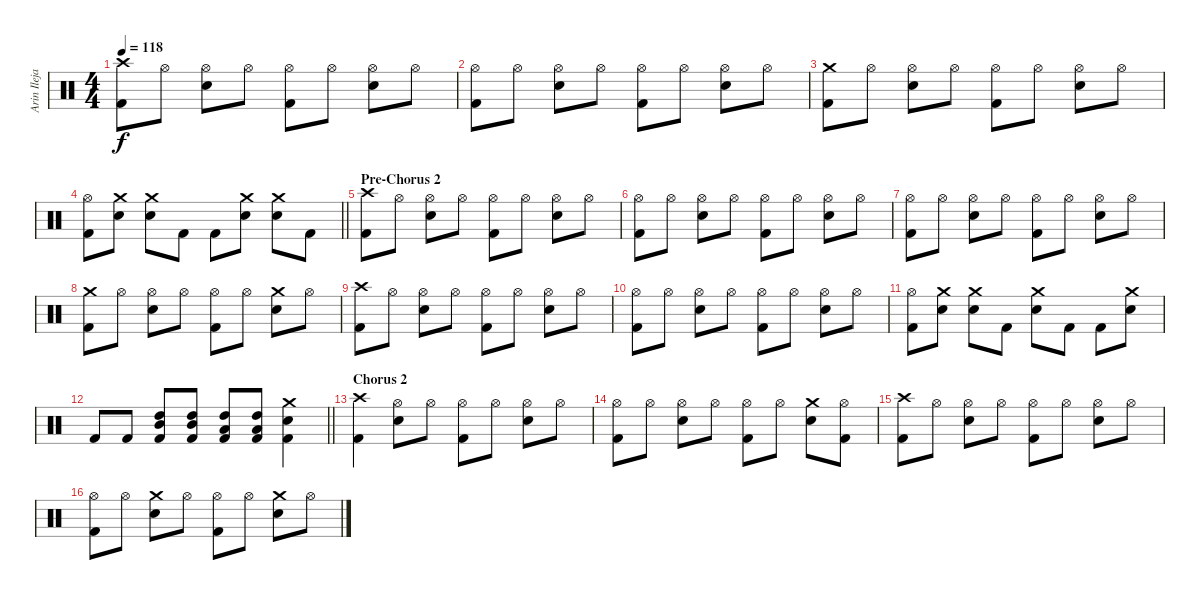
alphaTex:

\track ("Arin Ilejay" "Arin Ileja") {instrument percussion bank 164}
\staff {score}
\articulation defaults
\ts (4 4)
\tempo 118
\clef neutral
\ks c
("Crash high (hit)" "Kick (hit) 2").8{dy f} "Hi-Hat (open)".8 ("Hi-Hat (open)" "Electric Snare (hit)").8 "Hi-Hat (open)".8 ("Hi-Hat (open)" "Kick (hit) 2").8 "Hi-Hat (open)".8 ("Hi-Hat (open)" "Electric Snare (hit)").8 "Hi-Hat (open)".8 |
("Hi-Hat (open)" "Kick (hit) 2").8 "Hi-Hat (open)".8 ("Hi-Hat (open)" "Electric Snare (hit)").8 "Hi-Hat (open)".8 ("Hi-Hat (open)" "Kick (hit) 2").8 "Hi-Hat (open)".8 ("Hi-Hat (open)" "Electric Snare (hit)").8 "Hi-Hat (open)".8 |
("Crash medium (hit)" "Kick (hit) 2").8 "Hi-Hat (open)".8 ("Hi-Hat (open)" "Electric Snare (hit)").8 "Hi-Hat (open)".8 ("Hi-Hat (open)" "Kick (hit) 2").8 "Hi-Hat (open)".8 ("Hi-Hat (open)" "Electric Snare (hit)").8 "Hi-Hat (open)".8 |
\barLineRight lightlight
("Hi-Hat (open)" "Kick (hit) 2").8 ("Crash medium (hit)" "Electric Snare (hit)").8 ("Crash medium (hit)" "Electric Snare (hit)").8 "Kick (hit) 2".8 "Kick (hit) 2".8 ("Crash medium (hit)" "Electric Snare (hit)").8 ("Crash medium (hit)" "Electric Snare (hit)").8 "Kick (hit) 2".8 |
\section ("" "Pre-Chorus 2")
("Crash high (hit)" "Kick (hit) 2").8 "Hi-Hat (open)".8 ("Hi-Hat (open)" "Electric Snare (hit)").8 "Hi-Hat (open)".8 ("Hi-Hat (open)" "Kick (hit) 2").8 "Hi-Hat (open)".8 ("Hi-Hat (open)" "Electric Snare (hit)").8 "Hi-Hat (open)".8 |
("Hi-Hat (open)" "Kick (hit) 2").8 "Hi-Hat (open)".8 ("Hi-Hat (open)" "Electric Snare (hit)").8 "Hi-Hat (open)".8 ("Hi-Hat (open)" "Kick (hit) 2").8 "Hi-Hat (open)".8 ("Hi-Hat (open)" "Electric Snare (hit)").8 "Hi-Hat (open)".8 |
("Hi-Hat (open)" "Kick (hit) 2").8 "Hi-Hat (open)".8 ("Hi-Hat (open)" "Electric Snare (hit)").8 "Hi-Hat (open)".8 ("Hi-Hat (open)" "Kick (hit) 2").8 "Hi-Hat (open)".8 ("Hi-Hat (open)" "Electric Snare (hit)").8 "Hi-Hat (open)".8 |
("Crash medium (hit)" "Kick (hit) 2").8 "Hi-Hat (open)".8 ("Hi-Hat (open)" "Electric Snare (hit)").8 "Hi-Hat (open)".8 ("Hi-Hat (open)" "Kick (hit) 2").8 "Hi-Hat (open)".8 ("Crash medium (hit)" "Electric Snare (hit)").8 "Hi-Hat (open)".8 |
("Crash high (hit)" "Kick (hit) 2").8 "Hi-Hat (open)".8 ("Hi-Hat (open)" "Electric Snare (hit)").8 "Hi-Hat (open)".8 ("Hi-Hat (open)" "Kick (hit) 2").8 "Hi-Hat (open)".8 ("Hi-Hat (open)" "Electric Snare (hit)").8 "Hi-Hat (open)".8 |
("Hi-Hat (open)" "Kick (hit) 2").8 "Hi-Hat (open)".8 ("Hi-Hat (open)" "Electric Snare (hit)").8 "Hi-Hat (open)".8 ("Hi-Hat (open)" "Kick (hit) 2").8 "Hi-Hat (open)".8 ("Hi-Hat (open)" "Electric Snare (hit)").8 "Hi-Hat (open)".8 |
("Hi-Hat (open)" "Kick (hit) 2").8 ("Crash medium (hit)" "Electric Snare (hit)").8 ("Crash medium (hit)" "Electric Snare (hit)").8 "Kick (hit) 2".8 ("Crash medium (hit)" "Electric Snare (hit)").8 "Kick (hit) 2".8 "Kick (hit) 2".8 ("Crash medium (hit)" "Electric Snare (hit)").8 |
\barLineRight lightlight "Kick (hit) 2".8 "Kick (hit) 2".8
("Mid Tom (hit)" "High Tom (hit)" "Kick (hit) 2").8 ("Mid Tom (hit)" "High Tom (hit)" "Kick (hit) 2").8 ("Low Tom (hit)" "High Tom (hit)" "Kick (hit) 2").8 ("Low Tom (hit)" "High Tom (hit)" "Kick (hit) 2").8 ("Crash medium (hit)" "Electric Snare (hit)" "Kick (hit) 2").4 |
\section ("" "Chorus 2")
("Crash high (hit)" "Kick (hit) 2").4 ("Hi-Hat (open)" "Electric Snare (hit)").8 "Hi-Hat (open)".8 ("Hi-Hat (open)" "Kick (hit) 2").8 "Hi-Hat (open)".8 ("Hi-Hat (open)" "Electric Snare (hit)").8 "Hi-Hat (open)".8 |
("Hi-Hat (open)" "Kick (hit) 2").8 "Hi-Hat (open)".8 ("Hi-Hat (open)" "Electric Snare (hit)").8 "Hi-Hat (open)".8 ("Hi-Hat (open)" "Kick (hit) 2").8 "Hi-Hat (open)".8 ("Crash medium (hit)" "Electric Snare (hit)").8 ("Hi-Hat (open)" "Kick (hit) 2").8 |
("Crash high (hit)" "Kick (hit) 2").8 "Hi-Hat (open)".8 ("Hi-Hat (open)" "Electric Snare (hit)").8 "Hi-Hat (open)".8 ("Hi-Hat (open)" "Kick (hit) 2").8 "Hi-Hat (open)".8 ("Hi-Hat (open)" "Electric Snare (hit)").8 "Hi-Hat (open)".8 |
("Hi-Hat (open)" "Kick (hit) 2").8 "Hi-Hat (open)".8 ("Crash medium (hit)" "Electric Snare (hit)").8 "Hi-Hat (open)".8 ("Hi-Hat (open)" "Kick (hit) 2").8 "Hi-Hat (open)".8 ("Crash medium (hit)" "Electric Snare (hit)").8 "Hi-Hat (open)".8
